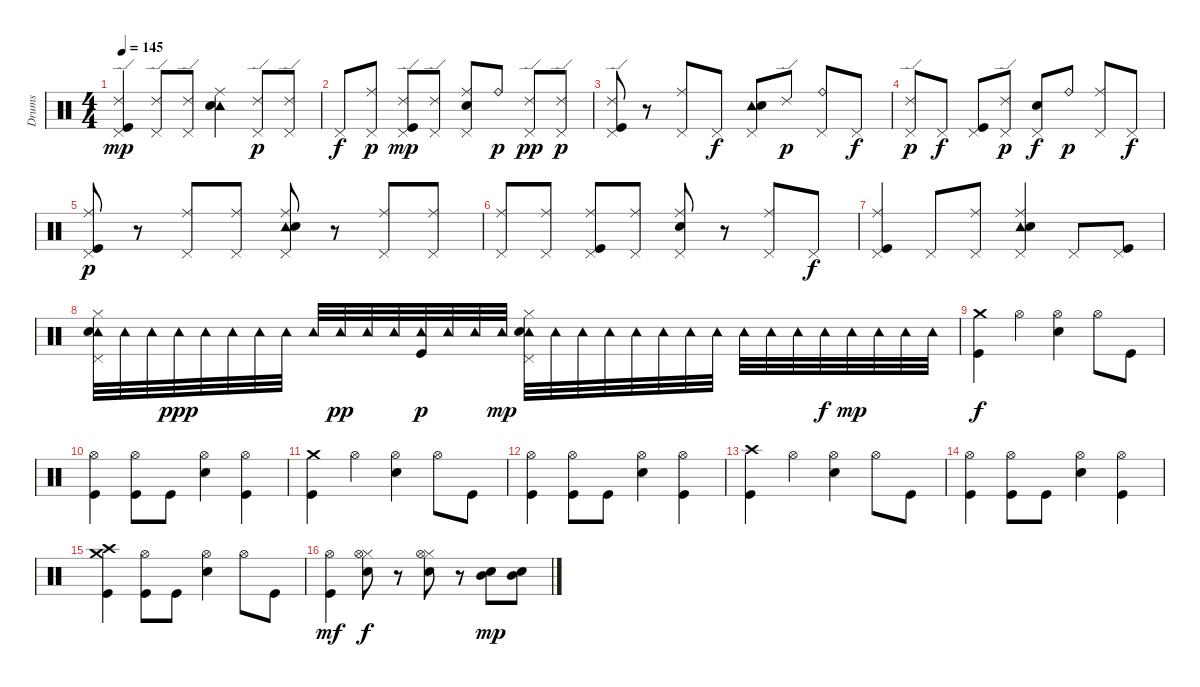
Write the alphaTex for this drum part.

\track ("Drums" "Drums") {instrument percussion}
\staff {score}
\articulation defaults
\ts (4 4)
\tempo 145
\clef neutral
\ks c
("Pedal Hi-Hat (hit)" "Ride (edge) 2" "Kick (hit)").4{dy mp} ("Pedal Hi-Hat (hit)" "Ride (edge) 2").8 ("Pedal Hi-Hat (hit)" "Ride (edge) 2").8 ("Tambourine (hit)" "Ride (middle)" "Electric Snare (hit)").4 ("Pedal Hi-Hat (hit)" "Ride (edge) 2").8{dy p} ("Pedal Hi-Hat (hit)" "Ride (edge) 2").8 |
"Pedal Hi-Hat (hit)".8{dy f} ("Pedal Hi-Hat (hit)" "Ride (middle)").8{dy p} ("Pedal Hi-Hat (hit)" "Ride (edge) 2" "Kick (hit)").8{dy mp} ("Pedal Hi-Hat (hit)" "Ride (edge) 2").8 ("Pedal Hi-Hat (hit)" "Ride (middle)" "Electric Snare (hit)").8 "Ride (bell)".8{dy p} ("Pedal Hi-Hat (hit)" "Ride (edge) 2").8{dy pp} ("Pedal Hi-Hat (hit)" "Ride (edge) 2").8{dy p} |
("Pedal Hi-Hat (hit)" "Ride (edge) 2" "Kick (hit)").8 r.8 ("Pedal Hi-Hat (hit)" "Ride (middle)").8 "Pedal Hi-Hat (hit)".8{dy f} ("Pedal Hi-Hat (hit)" "Tambourine (hit)" "Electric Snare (hit)").8 "Ride (edge) 2".8{dy p} ("Pedal Hi-Hat (hit)" "Ride (bell)").8 "Pedal Hi-Hat (hit)".8{dy f} |
("Pedal Hi-Hat (hit)" "Ride (edge) 2").8{dy p} "Pedal Hi-Hat (hit)".8{dy f} ("Pedal Hi-Hat (hit)" "Kick (hit)").8 ("Pedal Hi-Hat (hit)" "Ride (edge) 2").8{dy p} ("Pedal Hi-Hat (hit)" "Electric Snare (hit)").8{dy f} "Ride (bell)".8{dy p} ("Pedal Hi-Hat (hit)" "Ride (middle)").8 "Pedal Hi-Hat (hit)".8{dy f} |
("Pedal Hi-Hat (hit)" "Ride (middle)" "Kick (hit)").8{dy p} r.8 ("Pedal Hi-Hat (hit)" "Ride (middle)").8 ("Pedal Hi-Hat (hit)" "Ride (middle)").8 ("Pedal Hi-Hat (hit)" "Tambourine (hit)" "Ride (middle)" "Electric Snare (hit)").8 r.8 ("Pedal Hi-Hat (hit)" "Ride (middle)").8 ("Pedal Hi-Hat (hit)" "Ride (middle)").8 |
("Pedal Hi-Hat (hit)" "Ride (middle)").8 ("Pedal Hi-Hat (hit)" "Ride (middle)").8 ("Pedal Hi-Hat (hit)" "Ride (middle)" "Kick (hit)").8 ("Pedal Hi-Hat (hit)" "Ride (middle)").8 ("Pedal Hi-Hat (hit)" "Ride (middle)" "Electric Snare (hit)").8 r.8 ("Pedal Hi-Hat (hit)" "Ride (middle)").8 "Pedal Hi-Hat (hit)".8{dy f} |
("Pedal Hi-Hat (hit)" "Ride (middle)" "Kick (hit)").4 "Pedal Hi-Hat (hit)".8 ("Pedal Hi-Hat (hit)" "Ride (middle)").8 ("Tambourine (hit)" "Pedal Hi-Hat (hit)" "Ride (middle)" "Electric Snare (hit)").4 "Pedal Hi-Hat (hit)".8 ("Kick (hit)" "Pedal Hi-Hat (hit)").8 |
("Tambourine (hit)" "Pedal Hi-Hat (hit)" "Hi-Hat (closed)" "Electric Snare (hit)").32 "Tambourine (hit)".32 "Tambourine (hit)".32 "Tambourine (hit)".32{dy ppp} "Tambourine (hit)".32 "Tambourine (hit)".32 "Tambourine (hit)".32 "Tambourine (hit)".32 "Tambourine (hit)".32 "Tambourine (hit)".32{dy pp} "Tambourine (hit)".32 "Tambourine (hit)".32 ("Tambourine (hit)" "Kick (hit)").32{dy p} "Tambourine (hit)".32 "Tambourine (hit)".32 "Tambourine (hit)".32{dy mp} ("Tambourine (hit)" "Pedal Hi-Hat (hit)" "Hi-Hat (closed)" "Electric Snare (hit)").32 "Tambourine (hit)".32 "Tambourine (hit)".32 "Tambourine (hit)".32 "Tambourine (hit)".32 "Tambourine (hit)".32 "Tambourine (hit)".32 "Tambourine (hit)".32 "Tambourine (hit)".32 "Tambourine (hit)".32 "Tambourine (hit)".32 "Tambourine (hit)".32{dy f} "Tambourine (hit)".32{dy mp} "Tambourine (hit)".32 "Tambourine (hit)".32 "Tambourine (hit)".32 |
("Kick (hit)" "Crash medium (hit)").4{dy f} "Hi-Hat (open)".4 ("Hi-Hat (open)" "Electric Snare (hit)").4 "Hi-Hat (open)".8 "Kick (hit)".8 |
("Kick (hit)" "Hi-Hat (open)").4 ("Kick (hit)" "Hi-Hat (open)").8 "Kick (hit)".8 ("Hi-Hat (open)" "Electric Snare (hit)").4 ("Kick (hit)" "Hi-Hat (open)").4 |
("Kick (hit)" "Crash medium (hit)").4 "Hi-Hat (open)".4 ("Hi-Hat (open)" "Electric Snare (hit)").4 "Hi-Hat (open)".8 "Kick (hit)".8 |
("Kick (hit)" "Hi-Hat (open)").4 ("Kick (hit)" "Hi-Hat (open)").8 "Kick (hit)".8 ("Hi-Hat (open)" "Electric Snare (hit)").4 ("Kick (hit)" "Hi-Hat (open)").4 |
("Kick (hit)" "Crash high (hit)").4 "Hi-Hat (open)".4 ("Hi-Hat (open)" "Electric Snare (hit)").4 "Hi-Hat (open)".8 "Kick (hit)".8 |
("Kick (hit)" "Hi-Hat (open)").4 ("Kick (hit)" "Hi-Hat (open)").8 "Kick (hit)".8 ("Hi-Hat (open)" "Electric Snare (hit)").4 ("Kick (hit)" "Hi-Hat (open)").4 |
("Kick (hit)" "Crash high (hit)" "Crash medium (hit)").4 ("Kick (hit)" "Hi-Hat (open)").8 "Kick (hit)".8 ("Hi-Hat (open)" "Electric Snare (hit)").4 "Hi-Hat (open)".8 "Kick (hit)".8 |
("Kick (hit)" "Hi-Hat (open)").4{dy mf} ("Hi-Hat (closed)" "Hi-Hat (open)" "Snare (hit) 2").8{dy f} r.8 ("Hi-Hat (closed)" "Hi-Hat (open)" "Snare (hit) 2").8 r.8 ("Mid Tom (hit)" "Snare (hit) 2").8{dy mp} ("Mid Tom (hit)" "Snare (hit) 2").8
